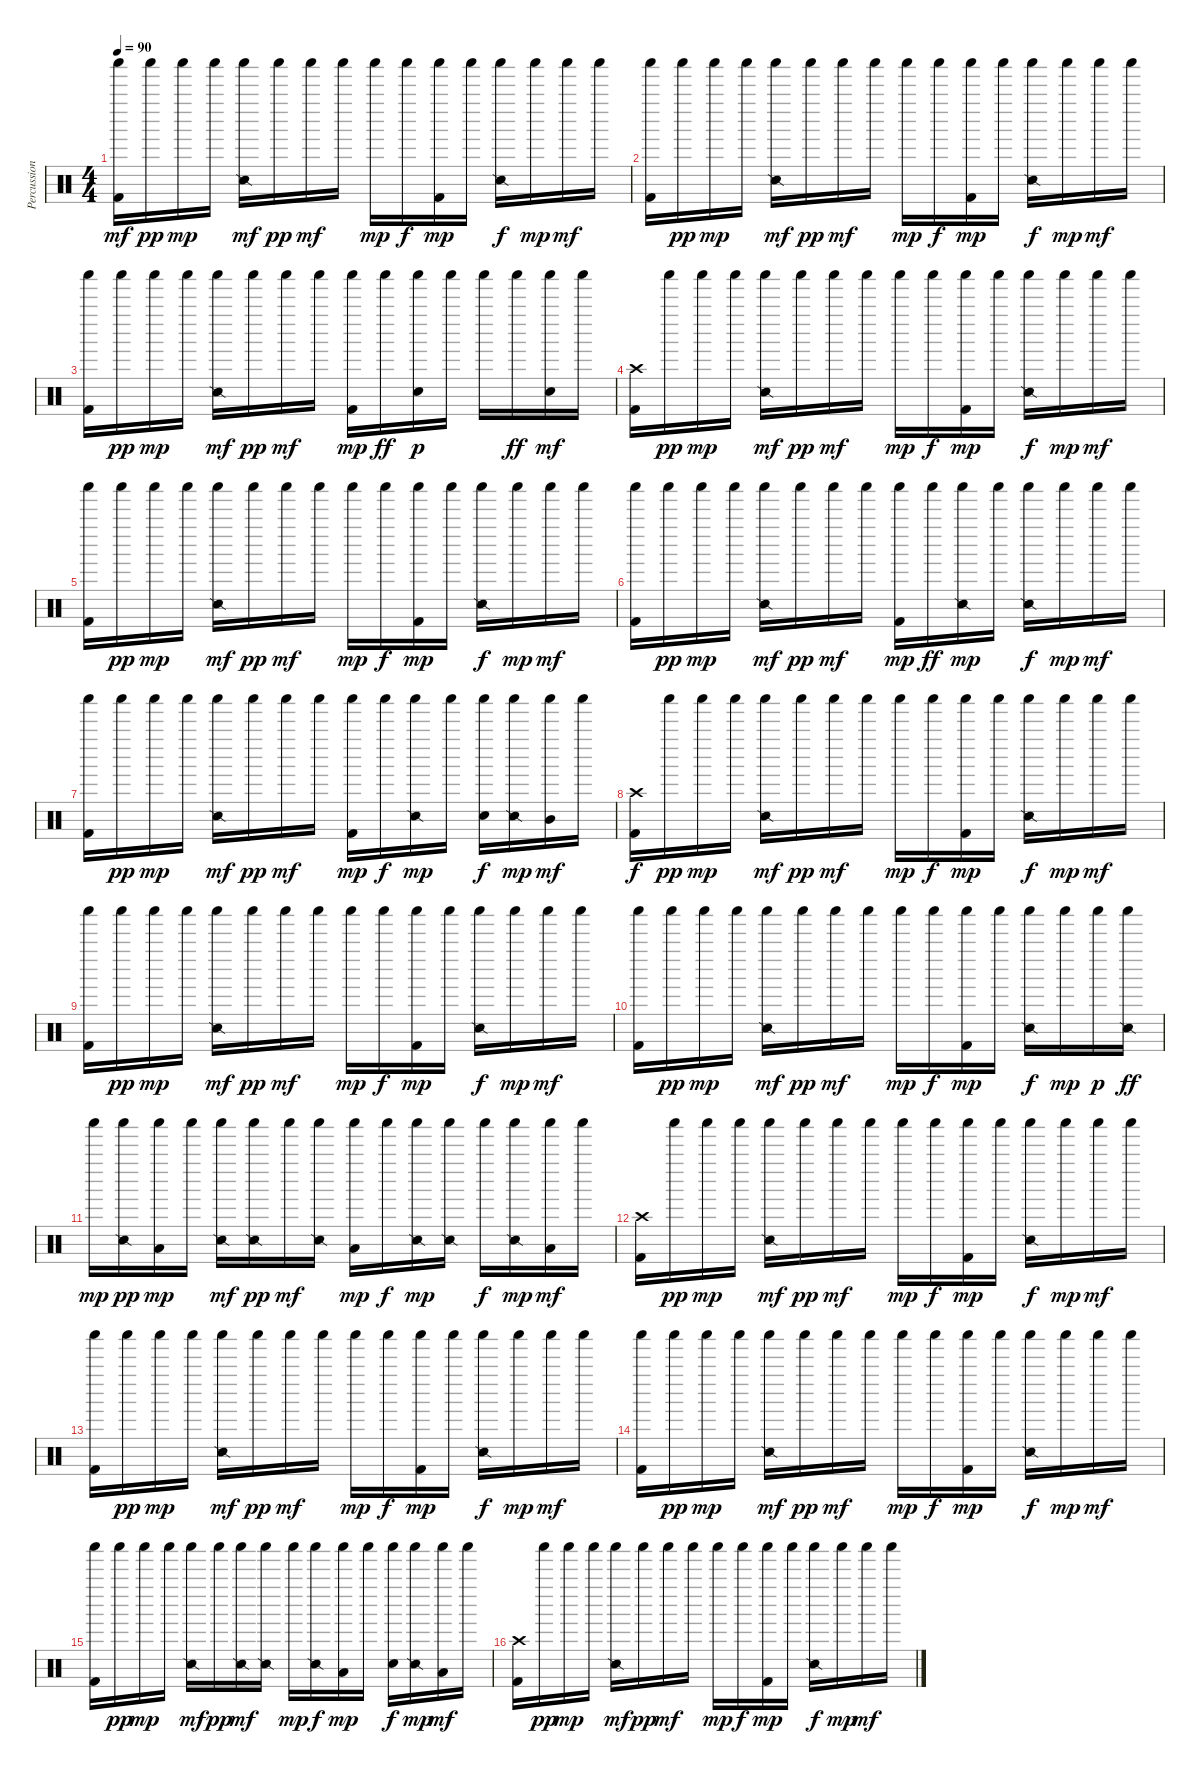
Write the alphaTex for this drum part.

\track ("Percussions" "Percussion") {instrument percussion}
\staff {score}
\articulation defaults
\ts (4 4)
\tempo 90
\clef neutral
\ks c
("Shaker (hit)" "Kick (hit) 2").16{dy mf} "Shaker (hit)".16{dy pp} "Shaker (hit)".16{dy mp} "Shaker (hit)".16 ("Shaker (hit)" "Snare (side stick) 2").16{dy mf} "Shaker (hit)".16{dy pp} "Shaker (hit)".16{dy mf} "Shaker (hit)".16 "Shaker (hit)".16{dy mp} "Shaker (hit)".16{dy f} ("Shaker (hit)" "Kick (hit) 2").16{dy mp} "Shaker (hit)".16 ("Shaker (hit)" "Snare (side stick) 2").16{dy f} "Shaker (hit)".16{dy mp} "Shaker (hit)".16{dy mf} "Shaker (hit)".16 |
("Shaker (hit)" "Kick (hit) 2").16 "Shaker (hit)".16{dy pp} "Shaker (hit)".16{dy mp} "Shaker (hit)".16 ("Shaker (hit)" "Snare (side stick) 2").16{dy mf} "Shaker (hit)".16{dy pp} "Shaker (hit)".16{dy mf} "Shaker (hit)".16 "Shaker (hit)".16{dy mp} "Shaker (hit)".16{dy f} ("Shaker (hit)" "Kick (hit) 2").16{dy mp} "Shaker (hit)".16 ("Shaker (hit)" "Snare (side stick) 2").16{dy f} "Shaker (hit)".16{dy mp} "Shaker (hit)".16{dy mf} "Shaker (hit)".16 |
("Shaker (hit)" "Kick (hit) 2").16 "Shaker (hit)".16{dy pp} "Shaker (hit)".16{dy mp} "Shaker (hit)".16 ("Shaker (hit)" "Snare (side stick) 2").16{dy mf} "Shaker (hit)".16{dy pp} "Shaker (hit)".16{dy mf} "Shaker (hit)".16 ("Shaker (hit)" "Kick (hit) 2").16{dy mp} "Shaker (hit)".16{dy ff} ("Shaker (hit)" "Electric Snare (hit)").16{dy p} "Shaker (hit)".16 "Shaker (hit)".16 "Shaker (hit)".16{dy ff} ("Shaker (hit)" "Electric Snare (hit)").16{dy mf} "Shaker (hit)".16 |
("Crash high (hit)" "Kick (hit) 2").16 "Shaker (hit)".16{dy pp} "Shaker (hit)".16{dy mp} "Shaker (hit)".16 ("Shaker (hit)" "Snare (side stick) 2").16{dy mf} "Shaker (hit)".16{dy pp} "Shaker (hit)".16{dy mf} "Shaker (hit)".16 "Shaker (hit)".16{dy mp} "Shaker (hit)".16{dy f} ("Shaker (hit)" "Kick (hit) 2").16{dy mp} "Shaker (hit)".16 ("Shaker (hit)" "Snare (side stick) 2").16{dy f} "Shaker (hit)".16{dy mp} "Shaker (hit)".16{dy mf} "Shaker (hit)".16 |
("Shaker (hit)" "Kick (hit) 2").16 "Shaker (hit)".16{dy pp} "Shaker (hit)".16{dy mp} "Shaker (hit)".16 ("Shaker (hit)" "Snare (side stick) 2").16{dy mf} "Shaker (hit)".16{dy pp} "Shaker (hit)".16{dy mf} "Shaker (hit)".16 "Shaker (hit)".16{dy mp} "Shaker (hit)".16{dy f} ("Shaker (hit)" "Kick (hit) 2").16{dy mp} "Shaker (hit)".16 ("Shaker (hit)" "Snare (side stick) 2").16{dy f} "Shaker (hit)".16{dy mp} "Shaker (hit)".16{dy mf} "Shaker (hit)".16 |
("Shaker (hit)" "Kick (hit) 2").16 "Shaker (hit)".16{dy pp} "Shaker (hit)".16{dy mp} "Shaker (hit)".16 ("Shaker (hit)" "Snare (side stick) 2").16{dy mf} "Shaker (hit)".16{dy pp} "Shaker (hit)".16{dy mf} "Shaker (hit)".16 ("Shaker (hit)" "Kick (hit) 2").16{dy mp} "Shaker (hit)".16{dy ff} ("Shaker (hit)" "Snare (side stick) 2").16{dy mp} "Shaker (hit)".16 ("Shaker (hit)" "Snare (side stick) 2").16{dy f} "Shaker (hit)".16{dy mp} "Shaker (hit)".16{dy mf} "Shaker (hit)".16 |
("Shaker (hit)" "Kick (hit) 2").16 "Shaker (hit)".16{dy pp} "Shaker (hit)".16{dy mp} "Shaker (hit)".16 ("Shaker (hit)" "Snare (side stick) 2").16{dy mf} "Shaker (hit)".16{dy pp} "Shaker (hit)".16{dy mf} "Shaker (hit)".16 ("Shaker (hit)" "Kick (hit) 2").16{dy mp} "Shaker (hit)".16{dy f} ("Shaker (hit)" "Snare (side stick) 2").16{dy mp} "Shaker (hit)".16 ("Shaker (hit)" "Metronome (bell)").16{dy f} ("Shaker (hit)" "Snare (side stick) 2").16{dy mp} ("Shaker (hit)" "Mid Tom (hit)").16{dy mf} "Shaker (hit)".16 |
("Crash high (hit)" "Kick (hit) 2").16{dy f} "Shaker (hit)".16{dy pp} "Shaker (hit)".16{dy mp} "Shaker (hit)".16 ("Shaker (hit)" "Snare (side stick) 2").16{dy mf} "Shaker (hit)".16{dy pp} "Shaker (hit)".16{dy mf} "Shaker (hit)".16 "Shaker (hit)".16{dy mp} "Shaker (hit)".16{dy f} ("Shaker (hit)" "Kick (hit) 2").16{dy mp} "Shaker (hit)".16 ("Shaker (hit)" "Snare (side stick) 2").16{dy f} "Shaker (hit)".16{dy mp} "Shaker (hit)".16{dy mf} "Shaker (hit)".16 |
("Shaker (hit)" "Kick (hit) 2").16 "Shaker (hit)".16{dy pp} "Shaker (hit)".16{dy mp} "Shaker (hit)".16 ("Shaker (hit)" "Snare (side stick) 2").16{dy mf} "Shaker (hit)".16{dy pp} "Shaker (hit)".16{dy mf} "Shaker (hit)".16 "Shaker (hit)".16{dy mp} "Shaker (hit)".16{dy f} ("Shaker (hit)" "Kick (hit) 2").16{dy mp} "Shaker (hit)".16 ("Shaker (hit)" "Snare (side stick) 2").16{dy f} "Shaker (hit)".16{dy mp} "Shaker (hit)".16{dy mf} "Shaker (hit)".16 |
("Shaker (hit)" "Kick (hit) 2").16 "Shaker (hit)".16{dy pp} "Shaker (hit)".16{dy mp} "Shaker (hit)".16 ("Shaker (hit)" "Snare (side stick) 2").16{dy mf} "Shaker (hit)".16{dy pp} "Shaker (hit)".16{dy mf} "Shaker (hit)".16 "Shaker (hit)".16{dy mp} "Shaker (hit)".16{dy f} ("Shaker (hit)" "Kick (hit) 2").16{dy mp} "Shaker (hit)".16 ("Shaker (hit)" "Snare (side stick) 2").16{dy f} "Shaker (hit)".16{dy mp} "Shaker (hit)".16{dy p} ("Shaker (hit)" "Snare (side stick) 2").16{dy ff} |
"Shaker (hit)".16{dy mp} ("Shaker (hit)" "Snare (side stick) 2").16{dy pp} ("Shaker (hit)" "Low Tom (hit)").16{dy mp} "Shaker (hit)".16 ("Shaker (hit)" "Snare (side stick) 2").16{dy mf} ("Shaker (hit)" "Snare (side stick) 2").16{dy pp} "Shaker (hit)".16{dy mf} ("Shaker (hit)" "Snare (side stick) 2").16 ("Shaker (hit)" "Low Tom (hit)").16{dy mp} "Shaker (hit)".16{dy f} ("Shaker (hit)" "Snare (side stick) 2").16{dy mp} ("Shaker (hit)" "Snare (side stick) 2").16 "Shaker (hit)".16{dy f} ("Shaker (hit)" "Snare (side stick) 2").16{dy mp} ("Shaker (hit)" "Low Tom (hit)").16{dy mf} "Shaker (hit)".16 |
("Crash high (hit)" "Kick (hit) 2").16 "Shaker (hit)".16{dy pp} "Shaker (hit)".16{dy mp} "Shaker (hit)".16 ("Shaker (hit)" "Snare (side stick) 2").16{dy mf} "Shaker (hit)".16{dy pp} "Shaker (hit)".16{dy mf} "Shaker (hit)".16 "Shaker (hit)".16{dy mp} "Shaker (hit)".16{dy f} ("Shaker (hit)" "Kick (hit) 2").16{dy mp} "Shaker (hit)".16 ("Shaker (hit)" "Snare (side stick) 2").16{dy f} "Shaker (hit)".16{dy mp} "Shaker (hit)".16{dy mf} "Shaker (hit)".16 |
("Shaker (hit)" "Kick (hit) 2").16 "Shaker (hit)".16{dy pp} "Shaker (hit)".16{dy mp} "Shaker (hit)".16 ("Shaker (hit)" "Snare (side stick) 2").16{dy mf} "Shaker (hit)".16{dy pp} "Shaker (hit)".16{dy mf} "Shaker (hit)".16 "Shaker (hit)".16{dy mp} "Shaker (hit)".16{dy f} ("Shaker (hit)" "Kick (hit) 2").16{dy mp} "Shaker (hit)".16 ("Shaker (hit)" "Snare (side stick) 2").16{dy f} "Shaker (hit)".16{dy mp} "Shaker (hit)".16{dy mf} "Shaker (hit)".16 |
("Shaker (hit)" "Kick (hit) 2").16 "Shaker (hit)".16{dy pp} "Shaker (hit)".16{dy mp} "Shaker (hit)".16 ("Shaker (hit)" "Snare (side stick) 2").16{dy mf} "Shaker (hit)".16{dy pp} "Shaker (hit)".16{dy mf} "Shaker (hit)".16 "Shaker (hit)".16{dy mp} "Shaker (hit)".16{dy f} ("Shaker (hit)" "Kick (hit) 2").16{dy mp} "Shaker (hit)".16 ("Shaker (hit)" "Snare (side stick) 2").16{dy f} "Shaker (hit)".16{dy mp} "Shaker (hit)".16{dy mf} "Shaker (hit)".16 |
("Shaker (hit)" "Kick (hit) 2").16 "Shaker (hit)".16{dy pp} "Shaker (hit)".16{dy mp} "Shaker (hit)".16 ("Shaker (hit)" "Snare (side stick) 2").16{dy mf} "Shaker (hit)".16{dy pp} ("Shaker (hit)" "Snare (side stick) 2").16{dy mf} ("Shaker (hit)" "Snare (side stick) 2").16 "Shaker (hit)".16{dy mp} ("Shaker (hit)" "Snare (side stick) 2").16{dy f} ("Shaker (hit)" "Low Tom (hit)").16{dy mp} "Shaker (hit)".16 ("Shaker (hit)" "Metronome (bell)").16{dy f} ("Shaker (hit)" "Snare (side stick) 2").16{dy mp} ("Shaker (hit)" "Low Tom (hit)").16{dy mf} "Shaker (hit)".16 |
("Crash high (hit)" "Kick (hit) 2").16 "Shaker (hit)".16{dy pp} "Shaker (hit)".16{dy mp} "Shaker (hit)".16 ("Shaker (hit)" "Snare (side stick) 2").16{dy mf} "Shaker (hit)".16{dy pp} "Shaker (hit)".16{dy mf} "Shaker (hit)".16 "Shaker (hit)".16{dy mp} "Shaker (hit)".16{dy f} ("Shaker (hit)" "Kick (hit) 2").16{dy mp} "Shaker (hit)".16 ("Shaker (hit)" "Snare (side stick) 2").16{dy f} "Shaker (hit)".16{dy mp} "Shaker (hit)".16{dy mf} "Shaker (hit)".16
